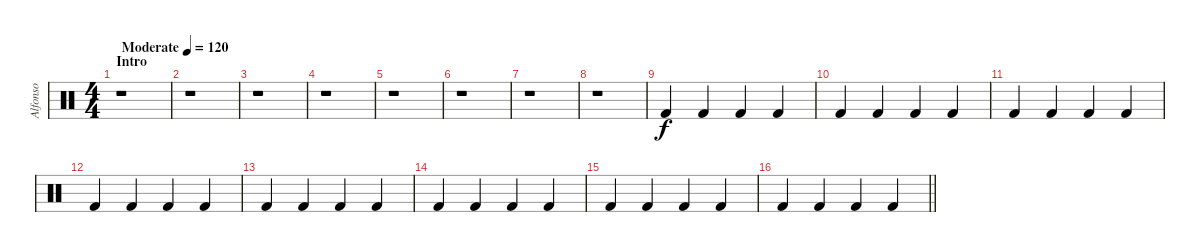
\track ("Alfonso" "Alfonso") {instrument percussion}
\staff {score}
\articulation defaults
\ts (4 4)
\section ("" "Intro")
\tempo (120 "Moderate")
\clef neutral
\ks c
r.1{dy f} |
r.1 |
r.1 |
r.1 |
r.1 |
r.1 |
r.1 |
r.1 |
"Kick (hit) 2".4 "Kick (hit) 2".4 "Kick (hit) 2".4 "Kick (hit) 2".4 |
"Kick (hit) 2".4 "Kick (hit) 2".4 "Kick (hit) 2".4 "Kick (hit) 2".4 |
"Kick (hit) 2".4 "Kick (hit) 2".4 "Kick (hit) 2".4 "Kick (hit) 2".4 |
"Kick (hit) 2".4 "Kick (hit) 2".4 "Kick (hit) 2".4 "Kick (hit) 2".4 |
"Kick (hit) 2".4 "Kick (hit) 2".4 "Kick (hit) 2".4 "Kick (hit) 2".4 |
"Kick (hit) 2".4 "Kick (hit) 2".4 "Kick (hit) 2".4 "Kick (hit) 2".4 |
"Kick (hit) 2".4 "Kick (hit) 2".4 "Kick (hit) 2".4 "Kick (hit) 2".4 |
\barLineRight lightlight "Kick (hit) 2".4 "Kick (hit) 2".4 "Kick (hit) 2".4 "Kick (hit) 2".4
